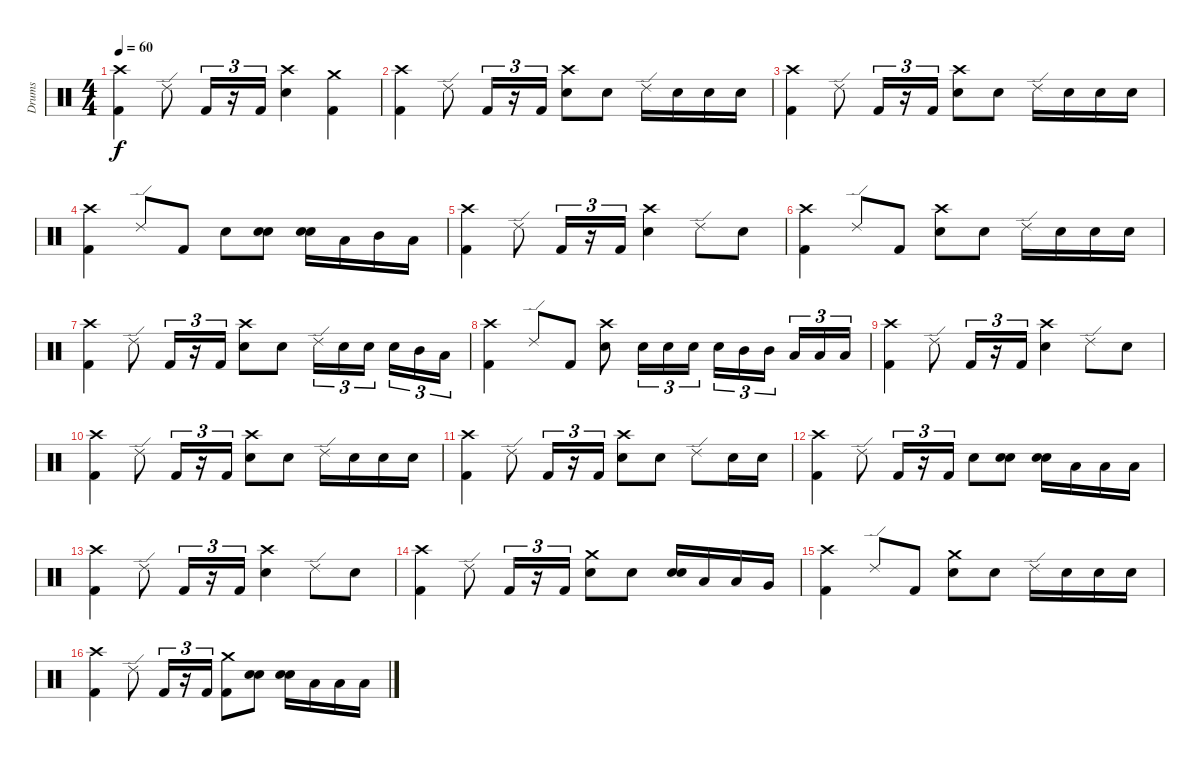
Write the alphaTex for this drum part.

\track ("Drums" "Drums") {instrument percussion}
\staff {score}
\articulation defaults
\ts (4 4)
\tempo 60
\clef neutral
\ks c
("Crash high (hit)" "Kick (hit) 2").4{dy f} "Ride (edge) 2".8 "Kick (hit) 2".16{tu (3 2)} r.16{tu (3 2)} "Kick (hit) 2".16{tu (3 2)} ("Crash high (hit)" "Electric Snare (hit)").4 ("Crash medium (hit)" "Kick (hit) 2").4 |
("Crash high (hit)" "Kick (hit) 2").4 "Ride (edge) 2".8 "Kick (hit) 2".16{tu (3 2)} r.16{tu (3 2)} "Kick (hit) 2".16{tu (3 2)} ("Crash high (hit)" "Electric Snare (hit)").8 "Electric Snare (hit)".8 "Ride (edge) 2".16 "Electric Snare (hit)".16 "Electric Snare (hit)".16 "Electric Snare (hit)".16 |
("Crash high (hit)" "Kick (hit) 2").4 "Ride (edge) 2".8 "Kick (hit) 2".16{tu (3 2)} r.16{tu (3 2)} "Kick (hit) 2".16{tu (3 2)} ("Crash high (hit)" "Electric Snare (hit)").8 "Electric Snare (hit)".8 "Ride (edge) 2".16 "Electric Snare (hit)".16 "Electric Snare (hit)".16 "Electric Snare (hit)".16 |
("Crash high (hit)" "Kick (hit) 2").4 "Ride (edge) 2".8 "Kick (hit) 2".8 "Electric Snare (hit)".8 ("Electric Snare (hit)" "Electric Snare (hit)").8{bu 60} ("Electric Snare (hit)" "Electric Snare (hit)").16{bu 60} "Low Tom (hit)".16 "Mid Tom (hit)".16 "Low Tom (hit)".16 |
("Crash high (hit)" "Kick (hit) 2").4 "Ride (edge) 2".8 "Kick (hit) 2".16{tu (3 2)} r.16{tu (3 2)} "Kick (hit) 2".16{tu (3 2)} ("Crash high (hit)" "Electric Snare (hit)").4 "Ride (edge) 2".8 "Electric Snare (hit)".8 |
("Crash high (hit)" "Kick (hit) 2").4 "Ride (edge) 2".8 "Kick (hit) 2".8 ("Crash high (hit)" "Electric Snare (hit)").8 "Electric Snare (hit)".8 "Ride (edge) 2".16 "Electric Snare (hit)".16 "Electric Snare (hit)".16 "Electric Snare (hit)".16 |
("Crash high (hit)" "Kick (hit) 2").4 "Ride (edge) 2".8 "Kick (hit) 2".16{tu (3 2)} r.16{tu (3 2)} "Kick (hit) 2".16{tu (3 2)} ("Crash high (hit)" "Electric Snare (hit)").8 "Electric Snare (hit)".8 "Ride (edge) 2".16{tu (3 2)} "Electric Snare (hit)".16{tu (3 2)} "Electric Snare (hit)".16{tu (3 2) beam splitsecondary} "Electric Snare (hit)".16{tu (3 2)} "Mid Tom (hit)".16{tu (3 2)} "Low Tom (hit)".16{tu (3 2)} |
("Crash high (hit)" "Kick (hit) 2").4 "Ride (edge) 2".8 "Kick (hit) 2".8 ("Crash high (hit)" "Electric Snare (hit)").8 "Electric Snare (hit)".16{tu (3 2)} "Electric Snare (hit)".16{tu (3 2)} "Electric Snare (hit)".16{tu (3 2)} "Electric Snare (hit)".16{tu (3 2)} "Mid Tom (hit)".16{tu (3 2)} "Mid Tom (hit)".16{tu (3 2) beam splitsecondary} "Low Tom (hit)".16{tu (3 2)} "Low Tom (hit)".16{tu (3 2)} "Low Tom (hit)".16{tu (3 2)} |
("Crash high (hit)" "Kick (hit) 2").4 "Ride (edge) 2".8 "Kick (hit) 2".16{tu (3 2)} r.16{tu (3 2)} "Kick (hit) 2".16{tu (3 2)} ("Crash high (hit)" "Electric Snare (hit)").4 "Ride (edge) 2".8 "Electric Snare (hit)".8 |
("Crash high (hit)" "Kick (hit) 2").4 "Ride (edge) 2".8 "Kick (hit) 2".16{tu (3 2)} r.16{tu (3 2)} "Kick (hit) 2".16{tu (3 2)} ("Crash high (hit)" "Electric Snare (hit)").8 "Electric Snare (hit)".8 "Ride (edge) 2".16 "Electric Snare (hit)".16 "Electric Snare (hit)".16 "Electric Snare (hit)".16 |
("Crash high (hit)" "Kick (hit) 2").4 "Ride (edge) 2".8 "Kick (hit) 2".16{tu (3 2)} r.16{tu (3 2)} "Kick (hit) 2".16{tu (3 2)} ("Crash high (hit)" "Electric Snare (hit)").8 "Electric Snare (hit)".8 "Ride (edge) 2".8 "Electric Snare (hit)".16 "Electric Snare (hit)".16 |
("Crash high (hit)" "Kick (hit) 2").4 "Ride (edge) 2".8 "Kick (hit) 2".16{tu (3 2)} r.16{tu (3 2)} "Kick (hit) 2".16{tu (3 2)} "Electric Snare (hit)".8 ("Electric Snare (hit)" "Electric Snare (hit)").8{bu 60} ("Electric Snare (hit)" "Electric Snare (hit)").16{bu 60} "Low Tom (hit)".16 "Low Tom (hit)".16 "Low Tom (hit)".16 |
("Crash high (hit)" "Kick (hit) 2").4 "Ride (edge) 2".8 "Kick (hit) 2".16{tu (3 2)} r.16{tu (3 2)} "Kick (hit) 2".16{tu (3 2)} ("Crash high (hit)" "Electric Snare (hit)").4 "Ride (edge) 2".8 "Electric Snare (hit)".8 |
("Crash high (hit)" "Kick (hit) 2").4 "Ride (edge) 2".8 "Kick (hit) 2".16{tu (3 2)} r.16{tu (3 2)} "Kick (hit) 2".16{tu (3 2)} ("Crash medium (hit)" "Electric Snare (hit)").8 "Electric Snare (hit)".8 ("Electric Snare (hit)" "Electric Snare (hit)").16{bu 60} "Low Tom (hit)".16 "Low Tom (hit)".16 "Very Low Tom (hit)".16 |
("Crash high (hit)" "Kick (hit) 2").4 "Ride (edge) 2".8 "Kick (hit) 2".8 ("Crash medium (hit)" "Electric Snare (hit)").8 "Electric Snare (hit)".8 "Ride (edge) 2".16 "Electric Snare (hit)".16 "Electric Snare (hit)".16 "Electric Snare (hit)".16 |
("Crash high (hit)" "Kick (hit) 2").4 "Ride (edge) 2".8 "Kick (hit) 2".16{tu (3 2)} r.16{tu (3 2)} "Kick (hit) 2".16{tu (3 2)} ("Crash medium (hit)" "Kick (hit) 2").8 ("Electric Snare (hit)" "Electric Snare (hit)").8{bu 60} ("Electric Snare (hit)" "Electric Snare (hit)").16{bu 60} "Low Tom (hit)".16 "Low Tom (hit)".16 "Low Tom (hit)".16
